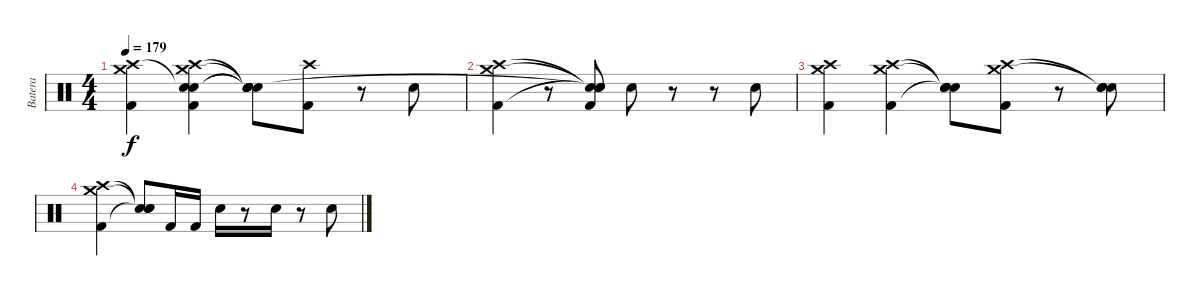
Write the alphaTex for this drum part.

\track ("Batera" "Batera") {instrument percussion}
\staff {score}
\articulation defaults
\ts (4 4)
\tempo 179
\clef neutral
\ks c
("Crash high (hit)" "Crash medium (hit)" "Kick (hit) 2").4{dy f} ("Snare (hit)"{t} "Crash high (hit)" "Crash medium (hit)" "Snare (hit)"{t} "Kick (hit) 2").4 ("Snare (hit)"{t} "Snare (hit)"{t} "Snare (hit)"{t} "Snare (hit)"{t} "Electric Snare (hit)").8 ("Crash high (hit)" "Kick (hit) 2").8 r.8 "Electric Snare (hit)".8 |
("Crash medium (hit)" "Crash high (hit)" "Kick (hit) 2").4 r.8 ("Snare (hit)"{t} "Snare (hit)"{t} "Snare (hit)"{t} "Snare (hit)"{t} "Kick (hit) 2").8 "Electric Snare (hit)".8 r.8 r.8 "Electric Snare (hit)".8 |
("Crash medium (hit)" "Crash high (hit)" "Kick (hit) 2").4 ("Crash medium (hit)" "Crash high (hit)" "Kick (hit) 2").4 ("Snare (hit)"{t} "Snare (hit)"{t} "Snare (hit)"{t} "Electric Snare (hit)").8 ("Crash medium (hit)" "Crash high (hit)" "Kick (hit) 2").8 r.8 ("Snare (hit)"{t} "Snare (hit)"{t} "Electric Snare (hit)").8 |
("Crash high (hit)" "Crash medium (hit)" "Kick (hit) 2").4 ("Snare (hit)"{t} "Snare (hit)"{t} "Snare (hit)"{t}).8 "Kick (hit) 2".16 "Kick (hit) 2".16 "Electric Snare (hit)".16 r.8 "Electric Snare (hit)".16 r.8 "Electric Snare (hit)".8
